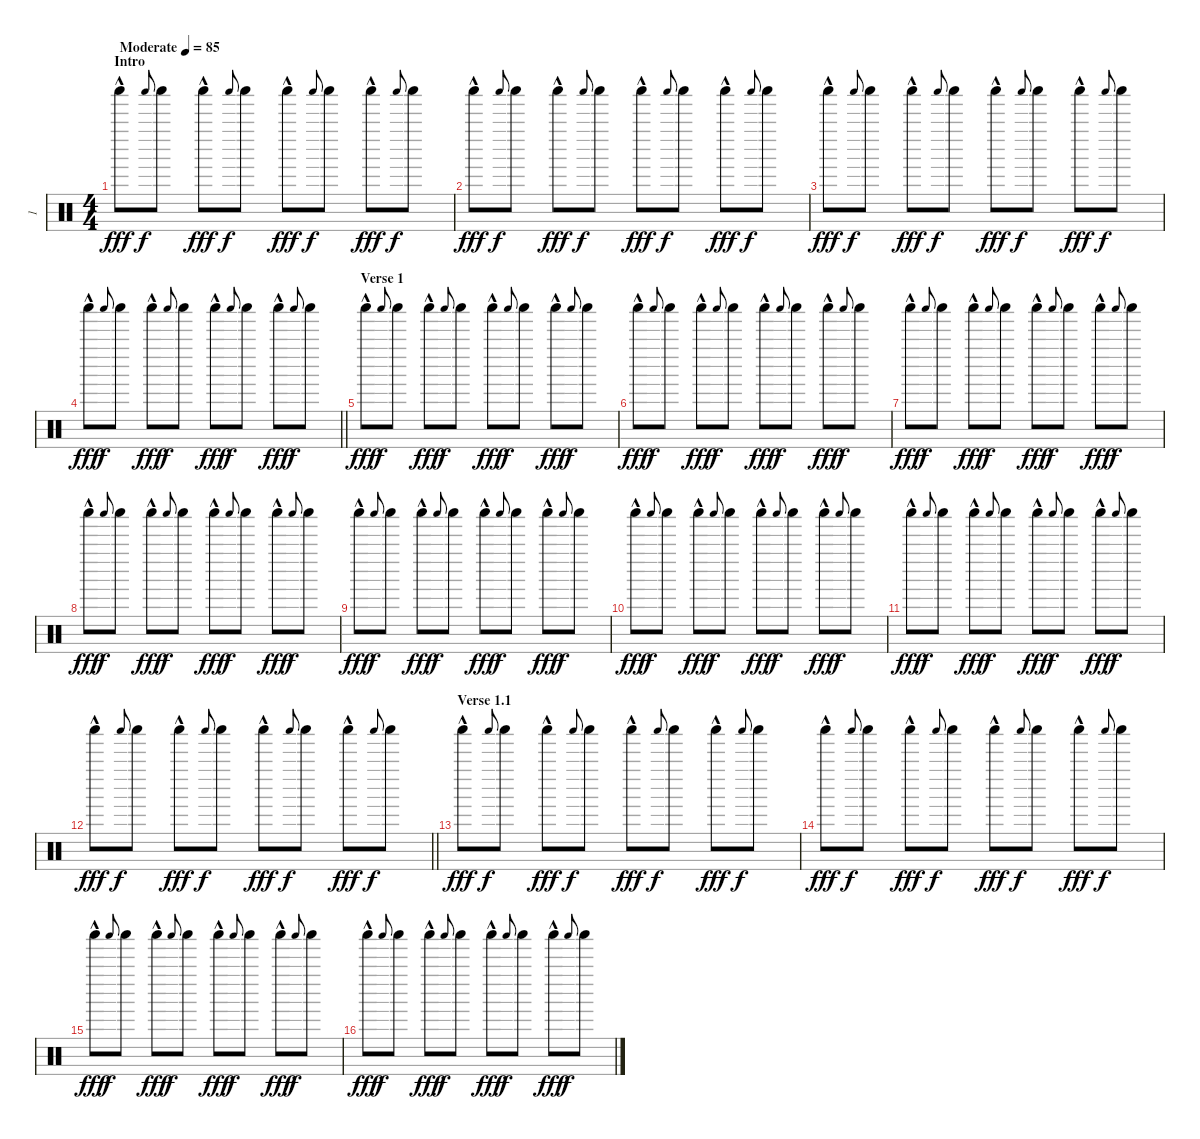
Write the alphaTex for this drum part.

\track ("1" "1") {instrument percussion}
\staff {score}
\articulation defaults
\ts (4 4)
\section ("" "Intro")
\tempo (85 "Moderate")
\clef neutral
\ks c "Shaker (hit)"{hac}.8{dy fff} "Shaker (hit)".8{gr onbeat dy f} "Shaker (hit)".8 "Shaker (hit)"{hac}.8{dy fff} "Shaker (hit)".8{gr onbeat dy f} "Shaker (hit)".8 "Shaker (hit)"{hac}.8{dy fff} "Shaker (hit)".8{gr onbeat dy f} "Shaker (hit)".8 "Shaker (hit)"{hac}.8{dy fff} "Shaker (hit)".8{gr onbeat dy f} "Shaker (hit)".8
|
"Shaker (hit)"{hac}.8{dy fff} "Shaker (hit)".8{gr onbeat dy f} "Shaker (hit)".8 "Shaker (hit)"{hac}.8{dy fff} "Shaker (hit)".8{gr onbeat dy f} "Shaker (hit)".8 "Shaker (hit)"{hac}.8{dy fff} "Shaker (hit)".8{gr onbeat dy f} "Shaker (hit)".8 "Shaker (hit)"{hac}.8{dy fff} "Shaker (hit)".8{gr onbeat dy f} "Shaker (hit)".8 |
"Shaker (hit)"{hac}.8{dy fff} "Shaker (hit)".8{gr onbeat dy f} "Shaker (hit)".8 "Shaker (hit)"{hac}.8{dy fff} "Shaker (hit)".8{gr onbeat dy f} "Shaker (hit)".8 "Shaker (hit)"{hac}.8{dy fff} "Shaker (hit)".8{gr onbeat dy f} "Shaker (hit)".8 "Shaker (hit)"{hac}.8{dy fff} "Shaker (hit)".8{gr onbeat dy f} "Shaker (hit)".8 |
\barLineRight lightlight "Shaker (hit)"{hac}.8{dy fff} "Shaker (hit)".8{gr onbeat dy f} "Shaker (hit)".8 "Shaker (hit)"{hac}.8{dy fff} "Shaker (hit)".8{gr onbeat dy f} "Shaker (hit)".8 "Shaker (hit)"{hac}.8{dy fff} "Shaker (hit)".8{gr onbeat dy f} "Shaker (hit)".8 "Shaker (hit)"{hac}.8{dy fff} "Shaker (hit)".8{gr onbeat dy f} "Shaker (hit)".8
|
\section ("" "Verse 1")
"Shaker (hit)"{hac}.8{dy fff} "Shaker (hit)".8{gr onbeat dy f} "Shaker (hit)".8 "Shaker (hit)"{hac}.8{dy fff} "Shaker (hit)".8{gr onbeat dy f} "Shaker (hit)".8 "Shaker (hit)"{hac}.8{dy fff} "Shaker (hit)".8{gr onbeat dy f} "Shaker (hit)".8 "Shaker (hit)"{hac}.8{dy fff} "Shaker (hit)".8{gr onbeat dy f} "Shaker (hit)".8 |
"Shaker (hit)"{hac}.8{dy fff} "Shaker (hit)".8{gr onbeat dy f} "Shaker (hit)".8 "Shaker (hit)"{hac}.8{dy fff} "Shaker (hit)".8{gr onbeat dy f} "Shaker (hit)".8 "Shaker (hit)"{hac}.8{dy fff} "Shaker (hit)".8{gr onbeat dy f} "Shaker (hit)".8 "Shaker (hit)"{hac}.8{dy fff} "Shaker (hit)".8{gr onbeat dy f} "Shaker (hit)".8 |
"Shaker (hit)"{hac}.8{dy fff} "Shaker (hit)".8{gr onbeat dy f} "Shaker (hit)".8 "Shaker (hit)"{hac}.8{dy fff} "Shaker (hit)".8{gr onbeat dy f} "Shaker (hit)".8 "Shaker (hit)"{hac}.8{dy fff} "Shaker (hit)".8{gr onbeat dy f} "Shaker (hit)".8 "Shaker (hit)"{hac}.8{dy fff} "Shaker (hit)".8{gr onbeat dy f} "Shaker (hit)".8 |
"Shaker (hit)"{hac}.8{dy fff} "Shaker (hit)".8{gr onbeat dy f} "Shaker (hit)".8 "Shaker (hit)"{hac}.8{dy fff} "Shaker (hit)".8{gr onbeat dy f} "Shaker (hit)".8 "Shaker (hit)"{hac}.8{dy fff} "Shaker (hit)".8{gr onbeat dy f} "Shaker (hit)".8 "Shaker (hit)"{hac}.8{dy fff} "Shaker (hit)".8{gr onbeat dy f} "Shaker (hit)".8 |
"Shaker (hit)"{hac}.8{dy fff} "Shaker (hit)".8{gr onbeat dy f} "Shaker (hit)".8 "Shaker (hit)"{hac}.8{dy fff} "Shaker (hit)".8{gr onbeat dy f} "Shaker (hit)".8 "Shaker (hit)"{hac}.8{dy fff} "Shaker (hit)".8{gr onbeat dy f} "Shaker (hit)".8 "Shaker (hit)"{hac}.8{dy fff} "Shaker (hit)".8{gr onbeat dy f} "Shaker (hit)".8 |
"Shaker (hit)"{hac}.8{dy fff} "Shaker (hit)".8{gr onbeat dy f} "Shaker (hit)".8 "Shaker (hit)"{hac}.8{dy fff} "Shaker (hit)".8{gr onbeat dy f} "Shaker (hit)".8 "Shaker (hit)"{hac}.8{dy fff} "Shaker (hit)".8{gr onbeat dy f} "Shaker (hit)".8 "Shaker (hit)"{hac}.8{dy fff} "Shaker (hit)".8{gr onbeat dy f} "Shaker (hit)".8 |
"Shaker (hit)"{hac}.8{dy fff} "Shaker (hit)".8{gr onbeat dy f} "Shaker (hit)".8 "Shaker (hit)"{hac}.8{dy fff} "Shaker (hit)".8{gr onbeat dy f} "Shaker (hit)".8 "Shaker (hit)"{hac}.8{dy fff} "Shaker (hit)".8{gr onbeat dy f} "Shaker (hit)".8 "Shaker (hit)"{hac}.8{dy fff} "Shaker (hit)".8{gr onbeat dy f} "Shaker (hit)".8 |
\barLineRight lightlight "Shaker (hit)"{hac}.8{dy fff} "Shaker (hit)".8{gr onbeat dy f} "Shaker (hit)".8 "Shaker (hit)"{hac}.8{dy fff} "Shaker (hit)".8{gr onbeat dy f} "Shaker (hit)".8 "Shaker (hit)"{hac}.8{dy fff} "Shaker (hit)".8{gr onbeat dy f} "Shaker (hit)".8 "Shaker (hit)"{hac}.8{dy fff} "Shaker (hit)".8{gr onbeat dy f} "Shaker (hit)".8
|
\section ("" "Verse 1.1")
"Shaker (hit)"{hac}.8{dy fff} "Shaker (hit)".8{gr onbeat dy f} "Shaker (hit)".8 "Shaker (hit)"{hac}.8{dy fff} "Shaker (hit)".8{gr onbeat dy f} "Shaker (hit)".8 "Shaker (hit)"{hac}.8{dy fff} "Shaker (hit)".8{gr onbeat dy f} "Shaker (hit)".8 "Shaker (hit)"{hac}.8{dy fff} "Shaker (hit)".8{gr onbeat dy f} "Shaker (hit)".8 |
"Shaker (hit)"{hac}.8{dy fff} "Shaker (hit)".8{gr onbeat dy f} "Shaker (hit)".8 "Shaker (hit)"{hac}.8{dy fff} "Shaker (hit)".8{gr onbeat dy f} "Shaker (hit)".8 "Shaker (hit)"{hac}.8{dy fff} "Shaker (hit)".8{gr onbeat dy f} "Shaker (hit)".8 "Shaker (hit)"{hac}.8{dy fff} "Shaker (hit)".8{gr onbeat dy f} "Shaker (hit)".8 |
"Shaker (hit)"{hac}.8{dy fff} "Shaker (hit)".8{gr onbeat dy f} "Shaker (hit)".8 "Shaker (hit)"{hac}.8{dy fff} "Shaker (hit)".8{gr onbeat dy f} "Shaker (hit)".8 "Shaker (hit)"{hac}.8{dy fff} "Shaker (hit)".8{gr onbeat dy f} "Shaker (hit)".8 "Shaker (hit)"{hac}.8{dy fff} "Shaker (hit)".8{gr onbeat dy f} "Shaker (hit)".8 |
"Shaker (hit)"{hac}.8{dy fff} "Shaker (hit)".8{gr onbeat dy f} "Shaker (hit)".8 "Shaker (hit)"{hac}.8{dy fff} "Shaker (hit)".8{gr onbeat dy f} "Shaker (hit)".8 "Shaker (hit)"{hac}.8{dy fff} "Shaker (hit)".8{gr onbeat dy f} "Shaker (hit)".8 "Shaker (hit)"{hac}.8{dy fff} "Shaker (hit)".8{gr onbeat dy f} "Shaker (hit)".8
